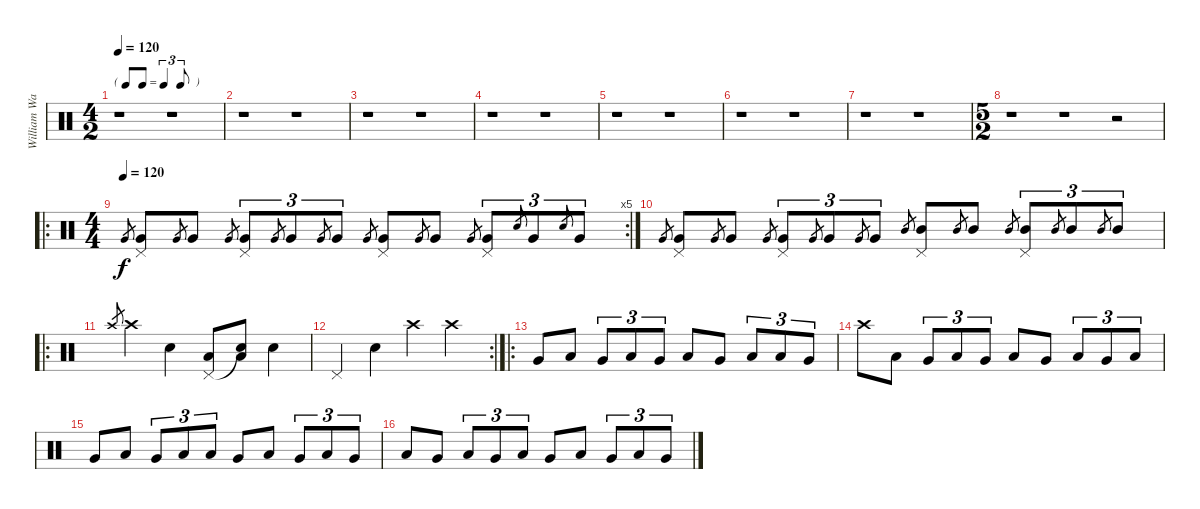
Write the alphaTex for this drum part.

\track ("William Ward" "William Wa") {instrument percussion}
\staff {score}
\articulation defaults
\ts (4 2)
\tf triplet8th
\tempo 120
\tempo 164
\tempo 120
\clef neutral
\ks c
r.1{dy f} r.1 |
r.1 r.1 |
r.1 r.1 |
r.1 r.1 |
r.1 r.1 |
r.1 r.1 |
r.1 r.1 |
\ts (5 2)
r.1 r.1 r.2 |
\ro
\rc 5
\ts (4 4)
\tempo (120)
"Very Low Tom (hit)".8{gr} ("Pedal Hi-Hat (hit)" "Very Low Tom (hit)").8 "Very Low Tom (hit)".8{gr} "Very Low Tom (hit)".8 "Very Low Tom (hit)".8{gr} ("Pedal Hi-Hat (hit)" "Very Low Tom (hit)").8{tu (3 2)} "Very Low Tom (hit)".8{gr} "Very Low Tom (hit)".8{tu (3 2)} "Very Low Tom (hit)".8{gr} "Very Low Tom (hit)".8{tu (3 2)} "Very Low Tom (hit)".8{gr} ("Pedal Hi-Hat (hit)" "Very Low Tom (hit)").8 "Very Low Tom (hit)".8{gr} "Very Low Tom (hit)".8 "Very Low Tom (hit)".8{gr} ("Pedal Hi-Hat (hit)" "Very Low Tom (hit)").8{tu (3 2)} "Snare (hit)".8{gr} "Very Low Tom (hit)".8{tu (3 2)} "Snare (hit)".8{gr} "Very Low Tom (hit)".8{tu (3 2)} |
"Very Low Tom (hit)".8{gr} ("Pedal Hi-Hat (hit)" "Very Low Tom (hit)").8 "Very Low Tom (hit)".8{gr} "Very Low Tom (hit)".8 "Very Low Tom (hit)".8{gr} ("Pedal Hi-Hat (hit)" "Very Low Tom (hit)").8{tu (3 2)} "Very Low Tom (hit)".8{gr} "Very Low Tom (hit)".8{tu (3 2)} "Very Low Tom (hit)".8{gr} "Very Low Tom (hit)".8{tu (3 2)} "Mid Tom (hit)".8{gr} ("Pedal Hi-Hat (hit)" "Mid Tom (hit)").8 "Mid Tom (hit)".8{gr} "Mid Tom (hit)".8 "Mid Tom (hit)".8{gr} ("Pedal Hi-Hat (hit)" "Mid Tom (hit)").8{tu (3 2)} "Mid Tom (hit)".8{gr} "Mid Tom (hit)".8{tu (3 2)} "Mid Tom (hit)".8{gr} "Mid Tom (hit)".8{tu (3 2)} |
\ro "Crash high (hit)".8{gr} "Crash high (hit)".4 "Snare (hit) 2".4
("Low Floor Tom (hit)" "Pedal Hi-Hat (hit)").8 ("Low Floor Tom (hit)" "Snare (hit)"{t}).8 "Snare (hit) 2".4 |
\rc 2 "Pedal Hi-Hat (hit)".4 "Snare (hit) 2".4 "Crash high (hit)".4 "Crash high (hit)".4
|
\ro "Very Low Tom (hit)".8 "Low Tom (hit)".8 "Very Low Tom (hit)".8{tu (3 2)} "Low Tom (hit)".8{tu (3 2)} "Very Low Tom (hit)".8{tu (3 2)} "Low Tom (hit)".8 "Very Low Tom (hit)".8 "Low Tom (hit)".8{tu (3 2)} "Low Tom (hit)".8{tu (3 2)} "Very Low Tom (hit)".8{tu (3 2)}
|
"Crash high (hit)".8 "Low Tom (hit)".8 "Very Low Tom (hit)".8{tu (3 2)} "Low Tom (hit)".8{tu (3 2)} "Very Low Tom (hit)".8{tu (3 2)} "Low Tom (hit)".8 "Very Low Tom (hit)".8 "Low Tom (hit)".8{tu (3 2)} "Very Low Tom (hit)".8{tu (3 2)} "Low Tom (hit)".8{tu (3 2)} |
"Very Low Tom (hit)".8 "Low Tom (hit)".8 "Very Low Tom (hit)".8{tu (3 2)} "Low Tom (hit)".8{tu (3 2)} "Low Tom (hit)".8{tu (3 2)} "Very Low Tom (hit)".8 "Low Tom (hit)".8 "Very Low Tom (hit)".8{tu (3 2)} "Low Tom (hit)".8{tu (3 2)} "Very Low Tom (hit)".8{tu (3 2)} |
"Low Tom (hit)".8 "Very Low Tom (hit)".8 "Low Tom (hit)".8{tu (3 2)} "Very Low Tom (hit)".8{tu (3 2)} "Low Tom (hit)".8{tu (3 2)} "Very Low Tom (hit)".8 "Low Tom (hit)".8 "Very Low Tom (hit)".8{tu (3 2)} "Low Tom (hit)".8{tu (3 2)} "Very Low Tom (hit)".8{tu (3 2)}
